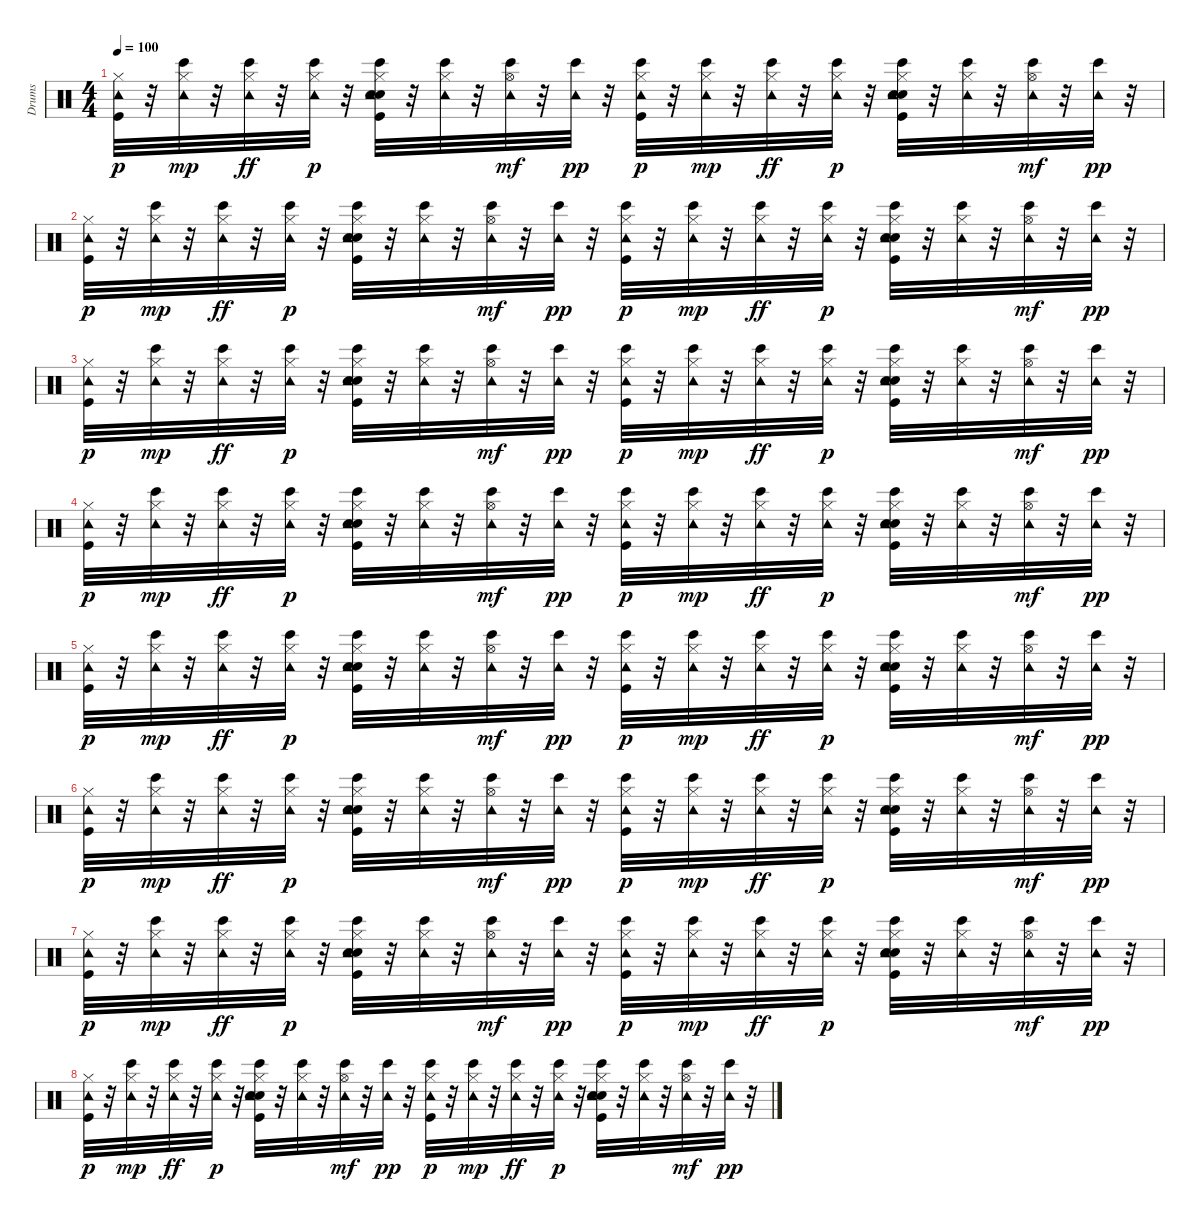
\track ("Drums" "Drums") {instrument percussion}
\staff {score}
\articulation defaults
\ts (4 4)
\tempo 100
\clef neutral
\ks c
("Tambourine (hit)" "Kick (hit)" "Hi-Hat (closed)").32{dy p} r.32 ("Bongo High (hit)" "Tambourine (hit)" "Hi-Hat (closed)").32{dy mp} r.32 ("Bongo High (hit)" "Tambourine (hit)" "Hi-Hat (closed)").32{dy ff} r.32 ("Bongo High (hit)" "Tambourine (hit)" "Hi-Hat (closed)").32{dy p} r.32 ("Hand Clap (hit)" "Snare (hit) 2" "Bongo High (hit)" "Tambourine (hit)" "Kick (hit)" "Hi-Hat (closed)").32 r.32 ("Bongo High (hit)" "Tambourine (hit)" "Hi-Hat (closed)").32 r.32 ("Bongo High (hit)" "Tambourine (hit)" "Hi-Hat (open)").32{dy mf} r.32 ("Bongo High (hit)" "Tambourine (hit)").32{dy pp} r.32 ("Bongo High (hit)" "Tambourine (hit)" "Kick (hit)" "Hi-Hat (closed)").32{dy p} r.32 ("Bongo High (hit)" "Tambourine (hit)" "Hi-Hat (closed)").32{dy mp} r.32 ("Bongo High (hit)" "Tambourine (hit)" "Hi-Hat (closed)").32{dy ff} r.32 ("Bongo High (hit)" "Tambourine (hit)" "Hi-Hat (closed)").32{dy p} r.32 ("Hand Clap (hit)" "Snare (hit) 2" "Bongo High (hit)" "Tambourine (hit)" "Kick (hit)" "Hi-Hat (closed)").32 r.32 ("Bongo High (hit)" "Tambourine (hit)" "Hi-Hat (closed)").32 r.32 ("Bongo High (hit)" "Tambourine (hit)" "Hi-Hat (open)").32{dy mf} r.32 ("Bongo High (hit)" "Tambourine (hit)").32{dy pp} r.32 |
("Tambourine (hit)" "Kick (hit)" "Hi-Hat (closed)").32{dy p} r.32 ("Bongo High (hit)" "Tambourine (hit)" "Hi-Hat (closed)").32{dy mp} r.32 ("Bongo High (hit)" "Tambourine (hit)" "Hi-Hat (closed)").32{dy ff} r.32 ("Bongo High (hit)" "Tambourine (hit)" "Hi-Hat (closed)").32{dy p} r.32 ("Hand Clap (hit)" "Snare (hit) 2" "Bongo High (hit)" "Tambourine (hit)" "Kick (hit)" "Hi-Hat (closed)").32 r.32 ("Bongo High (hit)" "Tambourine (hit)" "Hi-Hat (closed)").32 r.32 ("Bongo High (hit)" "Tambourine (hit)" "Hi-Hat (open)").32{dy mf} r.32 ("Bongo High (hit)" "Tambourine (hit)").32{dy pp} r.32 ("Bongo High (hit)" "Tambourine (hit)" "Kick (hit)" "Hi-Hat (closed)").32{dy p} r.32 ("Bongo High (hit)" "Tambourine (hit)" "Hi-Hat (closed)").32{dy mp} r.32 ("Bongo High (hit)" "Tambourine (hit)" "Hi-Hat (closed)").32{dy ff} r.32 ("Bongo High (hit)" "Tambourine (hit)" "Hi-Hat (closed)").32{dy p} r.32 ("Hand Clap (hit)" "Snare (hit) 2" "Bongo High (hit)" "Tambourine (hit)" "Kick (hit)" "Hi-Hat (closed)").32 r.32 ("Bongo High (hit)" "Tambourine (hit)" "Hi-Hat (closed)").32 r.32 ("Bongo High (hit)" "Tambourine (hit)" "Hi-Hat (open)").32{dy mf} r.32 ("Bongo High (hit)" "Tambourine (hit)").32{dy pp} r.32 |
("Tambourine (hit)" "Kick (hit)" "Hi-Hat (closed)").32{dy p} r.32 ("Bongo High (hit)" "Tambourine (hit)" "Hi-Hat (closed)").32{dy mp} r.32 ("Bongo High (hit)" "Tambourine (hit)" "Hi-Hat (closed)").32{dy ff} r.32 ("Bongo High (hit)" "Tambourine (hit)" "Hi-Hat (closed)").32{dy p} r.32 ("Hand Clap (hit)" "Snare (hit) 2" "Bongo High (hit)" "Tambourine (hit)" "Kick (hit)" "Hi-Hat (closed)").32 r.32 ("Bongo High (hit)" "Tambourine (hit)" "Hi-Hat (closed)").32 r.32 ("Bongo High (hit)" "Tambourine (hit)" "Hi-Hat (open)").32{dy mf} r.32 ("Bongo High (hit)" "Tambourine (hit)").32{dy pp} r.32 ("Bongo High (hit)" "Tambourine (hit)" "Kick (hit)" "Hi-Hat (closed)").32{dy p} r.32 ("Bongo High (hit)" "Tambourine (hit)" "Hi-Hat (closed)").32{dy mp} r.32 ("Bongo High (hit)" "Tambourine (hit)" "Hi-Hat (closed)").32{dy ff} r.32 ("Bongo High (hit)" "Tambourine (hit)" "Hi-Hat (closed)").32{dy p} r.32 ("Hand Clap (hit)" "Snare (hit) 2" "Bongo High (hit)" "Tambourine (hit)" "Kick (hit)" "Hi-Hat (closed)").32 r.32 ("Bongo High (hit)" "Tambourine (hit)" "Hi-Hat (closed)").32 r.32 ("Bongo High (hit)" "Tambourine (hit)" "Hi-Hat (open)").32{dy mf} r.32 ("Bongo High (hit)" "Tambourine (hit)").32{dy pp} r.32 |
("Tambourine (hit)" "Kick (hit)" "Hi-Hat (closed)").32{dy p} r.32 ("Bongo High (hit)" "Tambourine (hit)" "Hi-Hat (closed)").32{dy mp} r.32 ("Bongo High (hit)" "Tambourine (hit)" "Hi-Hat (closed)").32{dy ff} r.32 ("Bongo High (hit)" "Tambourine (hit)" "Hi-Hat (closed)").32{dy p} r.32 ("Hand Clap (hit)" "Snare (hit) 2" "Bongo High (hit)" "Tambourine (hit)" "Kick (hit)" "Hi-Hat (closed)").32 r.32 ("Bongo High (hit)" "Tambourine (hit)" "Hi-Hat (closed)").32 r.32 ("Bongo High (hit)" "Tambourine (hit)" "Hi-Hat (open)").32{dy mf} r.32 ("Bongo High (hit)" "Tambourine (hit)").32{dy pp} r.32 ("Bongo High (hit)" "Tambourine (hit)" "Kick (hit)" "Hi-Hat (closed)").32{dy p} r.32 ("Bongo High (hit)" "Tambourine (hit)" "Hi-Hat (closed)").32{dy mp} r.32 ("Bongo High (hit)" "Tambourine (hit)" "Hi-Hat (closed)").32{dy ff} r.32 ("Bongo High (hit)" "Tambourine (hit)" "Hi-Hat (closed)").32{dy p} r.32 ("Hand Clap (hit)" "Snare (hit) 2" "Bongo High (hit)" "Tambourine (hit)" "Kick (hit)" "Hi-Hat (closed)").32 r.32 ("Bongo High (hit)" "Tambourine (hit)" "Hi-Hat (closed)").32 r.32 ("Bongo High (hit)" "Tambourine (hit)" "Hi-Hat (open)").32{dy mf} r.32 ("Bongo High (hit)" "Tambourine (hit)").32{dy pp} r.32 |
("Tambourine (hit)" "Kick (hit)" "Hi-Hat (closed)").32{dy p} r.32 ("Bongo High (hit)" "Tambourine (hit)" "Hi-Hat (closed)").32{dy mp} r.32 ("Bongo High (hit)" "Tambourine (hit)" "Hi-Hat (closed)").32{dy ff} r.32 ("Bongo High (hit)" "Tambourine (hit)" "Hi-Hat (closed)").32{dy p} r.32 ("Hand Clap (hit)" "Snare (hit) 2" "Bongo High (hit)" "Tambourine (hit)" "Kick (hit)" "Hi-Hat (closed)").32 r.32 ("Bongo High (hit)" "Tambourine (hit)" "Hi-Hat (closed)").32 r.32 ("Bongo High (hit)" "Tambourine (hit)" "Hi-Hat (open)").32{dy mf} r.32 ("Bongo High (hit)" "Tambourine (hit)").32{dy pp} r.32 ("Bongo High (hit)" "Tambourine (hit)" "Kick (hit)" "Hi-Hat (closed)").32{dy p} r.32 ("Bongo High (hit)" "Tambourine (hit)" "Hi-Hat (closed)").32{dy mp} r.32 ("Bongo High (hit)" "Tambourine (hit)" "Hi-Hat (closed)").32{dy ff} r.32 ("Bongo High (hit)" "Tambourine (hit)" "Hi-Hat (closed)").32{dy p} r.32 ("Hand Clap (hit)" "Snare (hit) 2" "Bongo High (hit)" "Tambourine (hit)" "Kick (hit)" "Hi-Hat (closed)").32 r.32 ("Bongo High (hit)" "Tambourine (hit)" "Hi-Hat (closed)").32 r.32 ("Bongo High (hit)" "Tambourine (hit)" "Hi-Hat (open)").32{dy mf} r.32 ("Bongo High (hit)" "Tambourine (hit)").32{dy pp} r.32 |
("Tambourine (hit)" "Kick (hit)" "Hi-Hat (closed)").32{dy p} r.32 ("Bongo High (hit)" "Tambourine (hit)" "Hi-Hat (closed)").32{dy mp} r.32 ("Bongo High (hit)" "Tambourine (hit)" "Hi-Hat (closed)").32{dy ff} r.32 ("Bongo High (hit)" "Tambourine (hit)" "Hi-Hat (closed)").32{dy p} r.32 ("Hand Clap (hit)" "Snare (hit) 2" "Bongo High (hit)" "Tambourine (hit)" "Kick (hit)" "Hi-Hat (closed)").32 r.32 ("Bongo High (hit)" "Tambourine (hit)" "Hi-Hat (closed)").32 r.32 ("Bongo High (hit)" "Tambourine (hit)" "Hi-Hat (open)").32{dy mf} r.32 ("Bongo High (hit)" "Tambourine (hit)").32{dy pp} r.32 ("Bongo High (hit)" "Tambourine (hit)" "Kick (hit)" "Hi-Hat (closed)").32{dy p} r.32 ("Bongo High (hit)" "Tambourine (hit)" "Hi-Hat (closed)").32{dy mp} r.32 ("Bongo High (hit)" "Tambourine (hit)" "Hi-Hat (closed)").32{dy ff} r.32 ("Bongo High (hit)" "Tambourine (hit)" "Hi-Hat (closed)").32{dy p} r.32 ("Hand Clap (hit)" "Snare (hit) 2" "Bongo High (hit)" "Tambourine (hit)" "Kick (hit)" "Hi-Hat (closed)").32 r.32 ("Bongo High (hit)" "Tambourine (hit)" "Hi-Hat (closed)").32 r.32 ("Bongo High (hit)" "Tambourine (hit)" "Hi-Hat (open)").32{dy mf} r.32 ("Bongo High (hit)" "Tambourine (hit)").32{dy pp} r.32 |
("Tambourine (hit)" "Kick (hit)" "Hi-Hat (closed)").32{dy p} r.32 ("Bongo High (hit)" "Tambourine (hit)" "Hi-Hat (closed)").32{dy mp} r.32 ("Bongo High (hit)" "Tambourine (hit)" "Hi-Hat (closed)").32{dy ff} r.32 ("Bongo High (hit)" "Tambourine (hit)" "Hi-Hat (closed)").32{dy p} r.32 ("Hand Clap (hit)" "Snare (hit) 2" "Bongo High (hit)" "Tambourine (hit)" "Kick (hit)" "Hi-Hat (closed)").32 r.32 ("Bongo High (hit)" "Tambourine (hit)" "Hi-Hat (closed)").32 r.32 ("Bongo High (hit)" "Tambourine (hit)" "Hi-Hat (open)").32{dy mf} r.32 ("Bongo High (hit)" "Tambourine (hit)").32{dy pp} r.32 ("Bongo High (hit)" "Tambourine (hit)" "Kick (hit)" "Hi-Hat (closed)").32{dy p} r.32 ("Bongo High (hit)" "Tambourine (hit)" "Hi-Hat (closed)").32{dy mp} r.32 ("Bongo High (hit)" "Tambourine (hit)" "Hi-Hat (closed)").32{dy ff} r.32 ("Bongo High (hit)" "Tambourine (hit)" "Hi-Hat (closed)").32{dy p} r.32 ("Hand Clap (hit)" "Snare (hit) 2" "Bongo High (hit)" "Tambourine (hit)" "Kick (hit)" "Hi-Hat (closed)").32 r.32 ("Bongo High (hit)" "Tambourine (hit)" "Hi-Hat (closed)").32 r.32 ("Bongo High (hit)" "Tambourine (hit)" "Hi-Hat (open)").32{dy mf} r.32 ("Bongo High (hit)" "Tambourine (hit)").32{dy pp} r.32 |
("Tambourine (hit)" "Kick (hit)" "Hi-Hat (closed)").32{dy p} r.32 ("Bongo High (hit)" "Tambourine (hit)" "Hi-Hat (closed)").32{dy mp} r.32 ("Bongo High (hit)" "Tambourine (hit)" "Hi-Hat (closed)").32{dy ff} r.32 ("Bongo High (hit)" "Tambourine (hit)" "Hi-Hat (closed)").32{dy p} r.32 ("Hand Clap (hit)" "Snare (hit) 2" "Bongo High (hit)" "Tambourine (hit)" "Kick (hit)" "Hi-Hat (closed)").32 r.32 ("Bongo High (hit)" "Tambourine (hit)" "Hi-Hat (closed)").32 r.32 ("Bongo High (hit)" "Tambourine (hit)" "Hi-Hat (open)").32{dy mf} r.32 ("Bongo High (hit)" "Tambourine (hit)").32{dy pp} r.32 ("Bongo High (hit)" "Tambourine (hit)" "Kick (hit)" "Hi-Hat (closed)").32{dy p} r.32 ("Bongo High (hit)" "Tambourine (hit)" "Hi-Hat (closed)").32{dy mp} r.32 ("Bongo High (hit)" "Tambourine (hit)" "Hi-Hat (closed)").32{dy ff} r.32 ("Bongo High (hit)" "Tambourine (hit)" "Hi-Hat (closed)").32{dy p} r.32 ("Hand Clap (hit)" "Snare (hit) 2" "Bongo High (hit)" "Tambourine (hit)" "Kick (hit)" "Hi-Hat (closed)").32 r.32 ("Bongo High (hit)" "Tambourine (hit)" "Hi-Hat (closed)").32 r.32 ("Bongo High (hit)" "Tambourine (hit)" "Hi-Hat (open)").32{dy mf} r.32 ("Bongo High (hit)" "Tambourine (hit)").32{dy pp} r.32
